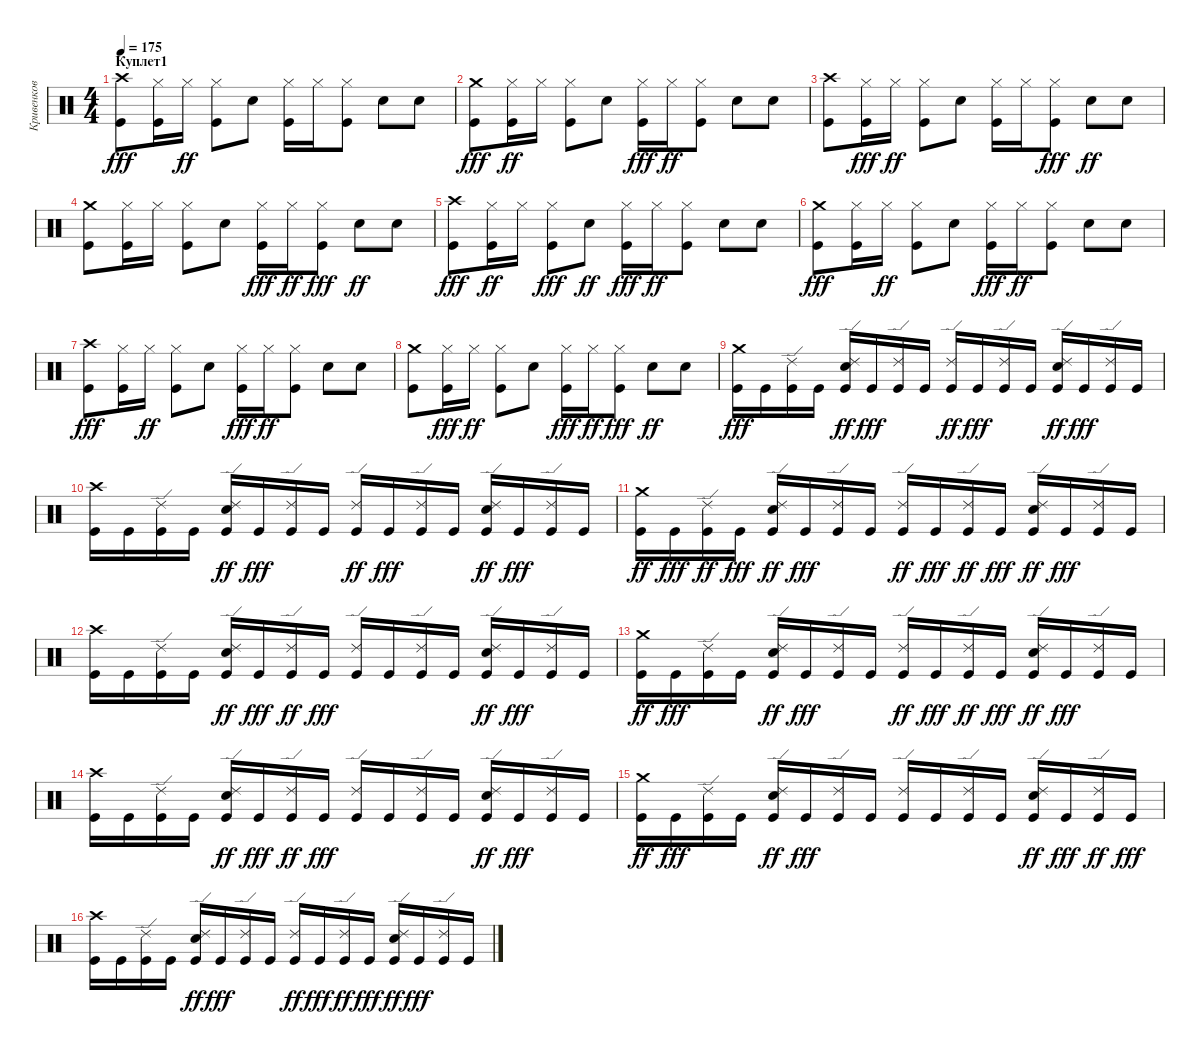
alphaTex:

\track ("Кривенков" "Кривенков") {instrument percussion}
\staff {score}
\articulation defaults
\ts (4 4)
\section ("" "Куплет1")
\tempo 175
\clef neutral
\ks c
("Crash high (hit)" "Kick (hit)").8{dy fff} ("Hi-Hat (closed)" "Kick (hit)").16 "Hi-Hat (closed)".16{dy ff} ("Kick (hit)" "Hi-Hat (closed)").8 "Snare (hit) 2".8 ("Kick (hit)" "Hi-Hat (closed)").16 "Hi-Hat (closed)".16 ("Kick (hit)" "Hi-Hat (closed)").8 "Snare (hit) 2".8 "Snare (hit) 2".8 |
("Crash medium (hit)" "Kick (hit)").8{dy fff} ("Kick (hit)" "Hi-Hat (closed)").16{dy ff} "Hi-Hat (closed)".16 ("Kick (hit)" "Hi-Hat (closed)").8 "Snare (hit) 2".8 ("Hi-Hat (closed)" "Kick (hit)").16{dy fff} "Hi-Hat (closed)".16{dy ff} ("Kick (hit)" "Hi-Hat (closed)").8 "Snare (hit) 2".8 "Snare (hit) 2".8 |
("Kick (hit)" "Crash high (hit)").8 ("Hi-Hat (closed)" "Kick (hit)").16{dy fff} "Hi-Hat (closed)".16{dy ff} ("Kick (hit)" "Hi-Hat (closed)").8 "Snare (hit) 2".8 ("Kick (hit)" "Hi-Hat (closed)").16 "Hi-Hat (closed)".16 ("Hi-Hat (closed)" "Kick (hit)").8{dy fff} "Snare (hit) 2".8{dy ff} "Snare (hit) 2".8 |
("Kick (hit)" "Crash medium (hit)").8 ("Kick (hit)" "Hi-Hat (closed)").16 "Hi-Hat (closed)".16 ("Kick (hit)" "Hi-Hat (closed)").8 "Snare (hit) 2".8 ("Hi-Hat (closed)" "Kick (hit)").16{dy fff} "Hi-Hat (closed)".16{dy ff} ("Hi-Hat (closed)" "Kick (hit)").8{dy fff} "Snare (hit) 2".8{dy ff} "Snare (hit) 2".8 |
("Crash high (hit)" "Kick (hit)").8{dy fff} ("Kick (hit)" "Hi-Hat (closed)").16{dy ff} "Hi-Hat (closed)".16 ("Hi-Hat (closed)" "Kick (hit)").8{dy fff} "Snare (hit) 2".8{dy ff} ("Hi-Hat (closed)" "Kick (hit)").16{dy fff} "Hi-Hat (closed)".16{dy ff} ("Kick (hit)" "Hi-Hat (closed)").8 "Snare (hit) 2".8 "Snare (hit) 2".8 |
("Crash medium (hit)" "Kick (hit)").8{dy fff} ("Hi-Hat (closed)" "Kick (hit)").16 "Hi-Hat (closed)".16{dy ff} ("Kick (hit)" "Hi-Hat (closed)").8 "Snare (hit) 2".8 ("Hi-Hat (closed)" "Kick (hit)").16{dy fff} "Hi-Hat (closed)".16{dy ff} ("Kick (hit)" "Hi-Hat (closed)").8 "Snare (hit) 2".8 "Snare (hit) 2".8 |
("Crash high (hit)" "Kick (hit)").8{dy fff} ("Hi-Hat (closed)" "Kick (hit)").16 "Hi-Hat (closed)".16{dy ff} ("Kick (hit)" "Hi-Hat (closed)").8 "Snare (hit) 2".8 ("Hi-Hat (closed)" "Kick (hit)").16{dy fff} "Hi-Hat (closed)".16{dy ff} ("Kick (hit)" "Hi-Hat (closed)").8 "Snare (hit) 2".8 "Snare (hit) 2".8 |
("Kick (hit)" "Crash medium (hit)").8 ("Hi-Hat (closed)" "Kick (hit)").16{dy fff} "Hi-Hat (closed)".16{dy ff} ("Kick (hit)" "Hi-Hat (closed)").8 "Snare (hit) 2".8 ("Hi-Hat (closed)" "Kick (hit)").16{dy fff} "Hi-Hat (closed)".16{dy ff} ("Hi-Hat (closed)" "Kick (hit)").8{dy fff} "Snare (hit) 2".8{dy ff} "Snare (hit) 2".8 |
("Crash medium (hit)" "Kick (hit)").16{dy fff} "Kick (hit)".16 ("Ride (edge) 2" "Kick (hit)").16 "Kick (hit)".16 ("Ride (edge) 2" "Kick (hit)" "Snare (hit) 2").16{dy ff} "Kick (hit)".16{dy fff} ("Ride (edge) 2" "Kick (hit)").16 "Kick (hit)".16 ("Kick (hit)" "Ride (edge) 2").16{dy ff} "Kick (hit)".16{dy fff} ("Ride (edge) 2" "Kick (hit)").16 "Kick (hit)".16 ("Ride (edge) 2" "Kick (hit)" "Snare (hit) 2").16{dy ff} "Kick (hit)".16{dy fff} ("Ride (edge) 2" "Kick (hit)").16 "Kick (hit)".16 |
("Crash high (hit)" "Kick (hit)").16 "Kick (hit)".16 ("Ride (edge) 2" "Kick (hit)").16 "Kick (hit)".16 ("Ride (edge) 2" "Kick (hit)" "Snare (hit) 2").16{dy ff} "Kick (hit)".16{dy fff} ("Ride (edge) 2" "Kick (hit)").16 "Kick (hit)".16 ("Kick (hit)" "Ride (edge) 2").16{dy ff} "Kick (hit)".16{dy fff} ("Ride (edge) 2" "Kick (hit)").16 "Kick (hit)".16 ("Ride (edge) 2" "Kick (hit)" "Snare (hit) 2").16{dy ff} "Kick (hit)".16{dy fff} ("Ride (edge) 2" "Kick (hit)").16 "Kick (hit)".16 |
("Kick (hit)" "Crash medium (hit)").16{dy ff} "Kick (hit)".16{dy fff} ("Kick (hit)" "Ride (edge) 2").16{dy ff} "Kick (hit)".16{dy fff} ("Kick (hit)" "Ride (edge) 2" "Snare (hit) 2").16{dy ff} "Kick (hit)".16{dy fff} ("Ride (edge) 2" "Kick (hit)").16 "Kick (hit)".16 ("Kick (hit)" "Ride (edge) 2").16{dy ff} "Kick (hit)".16{dy fff} ("Kick (hit)" "Ride (edge) 2").16{dy ff} "Kick (hit)".16{dy fff} ("Kick (hit)" "Ride (edge) 2" "Snare (hit) 2").16{dy ff} "Kick (hit)".16{dy fff} ("Ride (edge) 2" "Kick (hit)").16 "Kick (hit)".16 |
("Kick (hit)" "Crash high (hit)").16 "Kick (hit)".16 ("Ride (edge) 2" "Kick (hit)").16 "Kick (hit)".16 ("Ride (edge) 2" "Kick (hit)" "Snare (hit) 2").16{dy ff} "Kick (hit)".16{dy fff} ("Kick (hit)" "Ride (edge) 2").16{dy ff} "Kick (hit)".16{dy fff} ("Ride (edge) 2" "Kick (hit)").16 "Kick (hit)".16 ("Ride (edge) 2" "Kick (hit)").16 "Kick (hit)".16 ("Kick (hit)" "Ride (edge) 2" "Snare (hit) 2").16{dy ff} "Kick (hit)".16{dy fff} ("Ride (edge) 2" "Kick (hit)").16 "Kick (hit)".16 |
("Kick (hit)" "Crash medium (hit)").16{dy ff} "Kick (hit)".16{dy fff} ("Ride (edge) 2" "Kick (hit)").16 "Kick (hit)".16 ("Kick (hit)" "Ride (edge) 2" "Snare (hit) 2").16{dy ff} "Kick (hit)".16{dy fff} ("Ride (edge) 2" "Kick (hit)").16 "Kick (hit)".16 ("Kick (hit)" "Ride (edge) 2").16{dy ff} "Kick (hit)".16{dy fff} ("Kick (hit)" "Ride (edge) 2").16{dy ff} "Kick (hit)".16{dy fff} ("Kick (hit)" "Ride (edge) 2" "Snare (hit) 2").16{dy ff} "Kick (hit)".16{dy fff} ("Ride (edge) 2" "Kick (hit)").16 "Kick (hit)".16 |
("Kick (hit)" "Crash high (hit)").16 "Kick (hit)".16 ("Ride (edge) 2" "Kick (hit)").16 "Kick (hit)".16 ("Ride (edge) 2" "Kick (hit)" "Snare (hit) 2").16{dy ff} "Kick (hit)".16{dy fff} ("Kick (hit)" "Ride (edge) 2").16{dy ff} "Kick (hit)".16{dy fff} ("Ride (edge) 2" "Kick (hit)").16 "Kick (hit)".16 ("Ride (edge) 2" "Kick (hit)").16 "Kick (hit)".16 ("Kick (hit)" "Ride (edge) 2" "Snare (hit) 2").16{dy ff} "Kick (hit)".16{dy fff} ("Ride (edge) 2" "Kick (hit)").16 "Kick (hit)".16 |
("Kick (hit)" "Crash medium (hit)").16{dy ff} "Kick (hit)".16{dy fff} ("Ride (edge) 2" "Kick (hit)").16 "Kick (hit)".16 ("Ride (edge) 2" "Kick (hit)" "Snare (hit) 2").16{dy ff} "Kick (hit)".16{dy fff} ("Ride (edge) 2" "Kick (hit)").16 "Kick (hit)".16 ("Ride (edge) 2" "Kick (hit)").16 "Kick (hit)".16 ("Ride (edge) 2" "Kick (hit)").16 "Kick (hit)".16 ("Ride (edge) 2" "Kick (hit)" "Snare (hit) 2").16{dy ff} "Kick (hit)".16{dy fff} ("Kick (hit)" "Ride (edge) 2").16{dy ff} "Kick (hit)".16{dy fff} |
("Crash high (hit)" "Kick (hit)").16 "Kick (hit)".16 ("Ride (edge) 2" "Kick (hit)").16 "Kick (hit)".16 ("Kick (hit)" "Ride (edge) 2" "Snare (hit) 2").16{dy ff} "Kick (hit)".16{dy fff} ("Ride (edge) 2" "Kick (hit)").16 "Kick (hit)".16 ("Kick (hit)" "Ride (edge) 2").16{dy ff} "Kick (hit)".16{dy fff} ("Kick (hit)" "Ride (edge) 2").16{dy ff} "Kick (hit)".16{dy fff} ("Ride (edge) 2" "Kick (hit)" "Snare (hit) 2").16{dy ff} "Kick (hit)".16{dy fff} ("Ride (edge) 2" "Kick (hit)").16 "Kick (hit)".16
